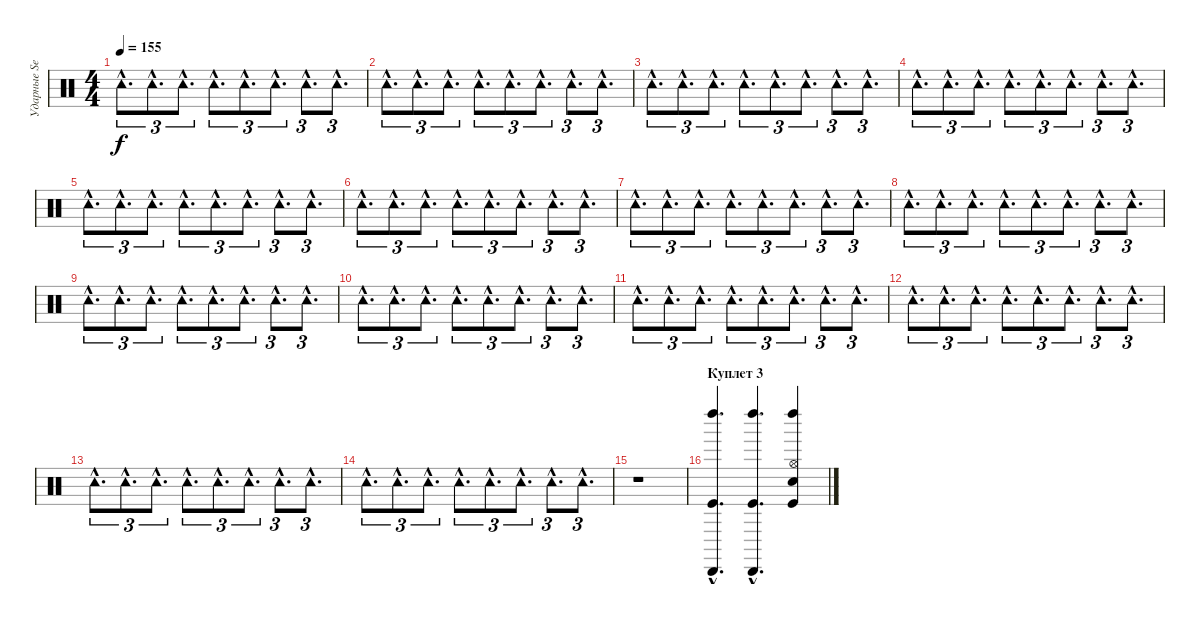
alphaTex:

\track ("Ударные Serge Petrone" "Ударные Se") {instrument percussion}
\staff {score}
\articulation defaults
\ts (4 4)
\tempo 155
\clef neutral
\ks c "Tambourine (hit)"{hac}.8{d tu (3 2) dy f} "Tambourine (hit)"{hac}.8{d tu (3 2)} "Tambourine (hit)"{hac}.8{d tu (3 2)} "Tambourine (hit)"{hac}.8{d tu (3 2)} "Tambourine (hit)"{hac}.8{d tu (3 2)} "Tambourine (hit)"{hac}.8{d tu (3 2)} "Tambourine (hit)"{hac}.8{d tu (3 2)} "Tambourine (hit)"{hac}.8{d tu (3 2)}
|
"Tambourine (hit)"{hac}.8{d tu (3 2)} "Tambourine (hit)"{hac}.8{d tu (3 2)} "Tambourine (hit)"{hac}.8{d tu (3 2)} "Tambourine (hit)"{hac}.8{d tu (3 2)} "Tambourine (hit)"{hac}.8{d tu (3 2)} "Tambourine (hit)"{hac}.8{d tu (3 2)} "Tambourine (hit)"{hac}.8{d tu (3 2)} "Tambourine (hit)"{hac}.8{d tu (3 2)} |
"Tambourine (hit)"{hac}.8{d tu (3 2)} "Tambourine (hit)"{hac}.8{d tu (3 2)} "Tambourine (hit)"{hac}.8{d tu (3 2)} "Tambourine (hit)"{hac}.8{d tu (3 2)} "Tambourine (hit)"{hac}.8{d tu (3 2)} "Tambourine (hit)"{hac}.8{d tu (3 2)} "Tambourine (hit)"{hac}.8{d tu (3 2)} "Tambourine (hit)"{hac}.8{d tu (3 2)} |
"Tambourine (hit)"{hac}.8{d tu (3 2)} "Tambourine (hit)"{hac}.8{d tu (3 2)} "Tambourine (hit)"{hac}.8{d tu (3 2)} "Tambourine (hit)"{hac}.8{d tu (3 2)} "Tambourine (hit)"{hac}.8{d tu (3 2)} "Tambourine (hit)"{hac}.8{d tu (3 2)} "Tambourine (hit)"{hac}.8{d tu (3 2)} "Tambourine (hit)"{hac}.8{d tu (3 2)} |
"Tambourine (hit)"{hac}.8{d tu (3 2)} "Tambourine (hit)"{hac}.8{d tu (3 2)} "Tambourine (hit)"{hac}.8{d tu (3 2)} "Tambourine (hit)"{hac}.8{d tu (3 2)} "Tambourine (hit)"{hac}.8{d tu (3 2)} "Tambourine (hit)"{hac}.8{d tu (3 2)} "Tambourine (hit)"{hac}.8{d tu (3 2)} "Tambourine (hit)"{hac}.8{d tu (3 2)} |
"Tambourine (hit)"{hac}.8{d tu (3 2)} "Tambourine (hit)"{hac}.8{d tu (3 2)} "Tambourine (hit)"{hac}.8{d tu (3 2)} "Tambourine (hit)"{hac}.8{d tu (3 2)} "Tambourine (hit)"{hac}.8{d tu (3 2)} "Tambourine (hit)"{hac}.8{d tu (3 2)} "Tambourine (hit)"{hac}.8{d tu (3 2)} "Tambourine (hit)"{hac}.8{d tu (3 2)} |
"Tambourine (hit)"{hac}.8{d tu (3 2)} "Tambourine (hit)"{hac}.8{d tu (3 2)} "Tambourine (hit)"{hac}.8{d tu (3 2)} "Tambourine (hit)"{hac}.8{d tu (3 2)} "Tambourine (hit)"{hac}.8{d tu (3 2)} "Tambourine (hit)"{hac}.8{d tu (3 2)} "Tambourine (hit)"{hac}.8{d tu (3 2)} "Tambourine (hit)"{hac}.8{d tu (3 2)} |
"Tambourine (hit)"{hac}.8{d tu (3 2)} "Tambourine (hit)"{hac}.8{d tu (3 2)} "Tambourine (hit)"{hac}.8{d tu (3 2)} "Tambourine (hit)"{hac}.8{d tu (3 2)} "Tambourine (hit)"{hac}.8{d tu (3 2)} "Tambourine (hit)"{hac}.8{d tu (3 2)} "Tambourine (hit)"{hac}.8{d tu (3 2)} "Tambourine (hit)"{hac}.8{d tu (3 2)} |
"Tambourine (hit)"{hac}.8{d tu (3 2)} "Tambourine (hit)"{hac}.8{d tu (3 2)} "Tambourine (hit)"{hac}.8{d tu (3 2)} "Tambourine (hit)"{hac}.8{d tu (3 2)} "Tambourine (hit)"{hac}.8{d tu (3 2)} "Tambourine (hit)"{hac}.8{d tu (3 2)} "Tambourine (hit)"{hac}.8{d tu (3 2)} "Tambourine (hit)"{hac}.8{d tu (3 2)} |
"Tambourine (hit)"{hac}.8{d tu (3 2)} "Tambourine (hit)"{hac}.8{d tu (3 2)} "Tambourine (hit)"{hac}.8{d tu (3 2)} "Tambourine (hit)"{hac}.8{d tu (3 2)} "Tambourine (hit)"{hac}.8{d tu (3 2)} "Tambourine (hit)"{hac}.8{d tu (3 2)} "Tambourine (hit)"{hac}.8{d tu (3 2)} "Tambourine (hit)"{hac}.8{d tu (3 2)} |
"Tambourine (hit)"{hac}.8{d tu (3 2)} "Tambourine (hit)"{hac}.8{d tu (3 2)} "Tambourine (hit)"{hac}.8{d tu (3 2)} "Tambourine (hit)"{hac}.8{d tu (3 2)} "Tambourine (hit)"{hac}.8{d tu (3 2)} "Tambourine (hit)"{hac}.8{d tu (3 2)} "Tambourine (hit)"{hac}.8{d tu (3 2)} "Tambourine (hit)"{hac}.8{d tu (3 2)} |
"Tambourine (hit)"{hac}.8{d tu (3 2)} "Tambourine (hit)"{hac}.8{d tu (3 2)} "Tambourine (hit)"{hac}.8{d tu (3 2)} "Tambourine (hit)"{hac}.8{d tu (3 2)} "Tambourine (hit)"{hac}.8{d tu (3 2)} "Tambourine (hit)"{hac}.8{d tu (3 2)} "Tambourine (hit)"{hac}.8{d tu (3 2)} "Tambourine (hit)"{hac}.8{d tu (3 2)} |
"Tambourine (hit)"{hac}.8{d tu (3 2)} "Tambourine (hit)"{hac}.8{d tu (3 2)} "Tambourine (hit)"{hac}.8{d tu (3 2)} "Tambourine (hit)"{hac}.8{d tu (3 2)} "Tambourine (hit)"{hac}.8{d tu (3 2)} "Tambourine (hit)"{hac}.8{d tu (3 2)} "Tambourine (hit)"{hac}.8{d tu (3 2)} "Tambourine (hit)"{hac}.8{d tu (3 2)} |
"Tambourine (hit)"{hac}.8{d tu (3 2)} "Tambourine (hit)"{hac}.8{d tu (3 2)} "Tambourine (hit)"{hac}.8{d tu (3 2)} "Tambourine (hit)"{hac}.8{d tu (3 2)} "Tambourine (hit)"{hac}.8{d tu (3 2)} "Tambourine (hit)"{hac}.8{d tu (3 2)} "Tambourine (hit)"{hac}.8{d tu (3 2)} "Tambourine (hit)"{hac}.8{d tu (3 2)} |
r.1 |
\section ("" "Куплет 3")
("Cabasa (hit)"{hac} "Kick (hit)"{hac} "Left Maraca (hit)"{hac}).4{d volume 13} ("Cabasa (hit)"{hac} "Kick (hit)"{hac} "Left Maraca (hit)"{hac}).4{d} ("Hi-Hat (open)" "Hand Clap (hit)" "Kick (hit)" "Left Maraca (hit)").4
